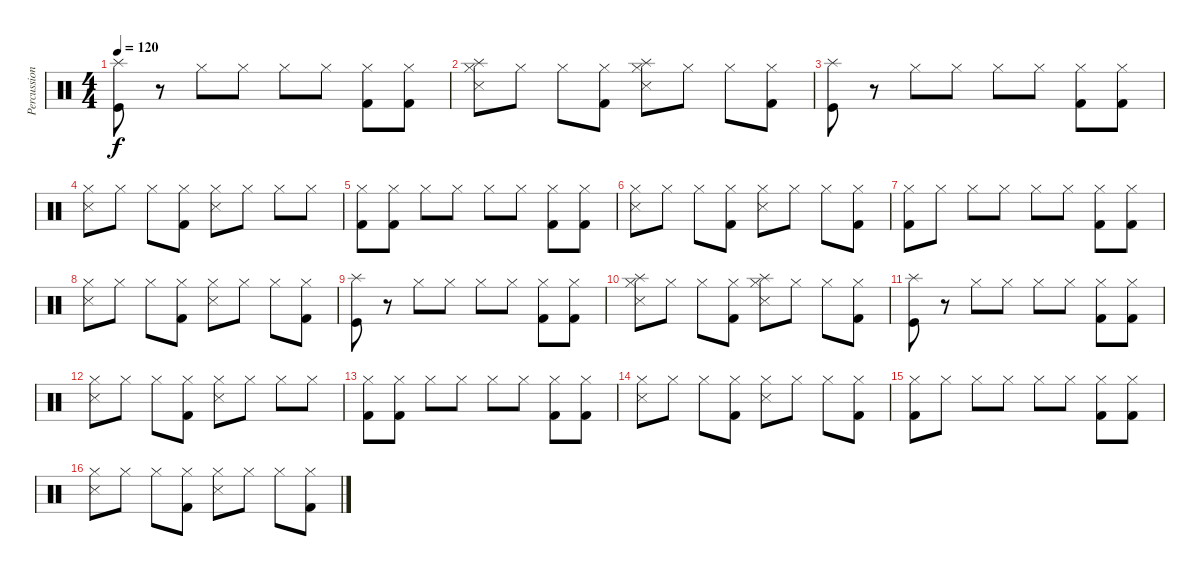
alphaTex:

\track ("Percussion" "Percussion") {instrument percussion}
\staff {score}
\articulation defaults
\ts (4 4)
\tempo 120
\clef neutral
\ks c
("Splash (hit)" "Kick (hit)").8{dy f} r.8 "Hi-Hat (closed)".8 "Hi-Hat (closed)".8 "Hi-Hat (closed)".8 "Hi-Hat (closed)".8 ("Kick (hit) 2" "Hi-Hat (closed)").8 ("Kick (hit) 2" "Hi-Hat (closed)").8 |
("Splash (hit)" "Snare (side stick) 3" "Hi-Hat (closed)").8 "Hi-Hat (closed)".8 "Hi-Hat (closed)".8 ("Kick (hit) 2" "Hi-Hat (closed)").8 ("Splash (hit)" "Snare (side stick) 3" "Hi-Hat (closed)").8 "Hi-Hat (closed)".8 "Hi-Hat (closed)".8 ("Kick (hit) 2" "Hi-Hat (closed)").8 |
("Splash (hit)" "Kick (hit)").8 r.8 "Hi-Hat (closed)".8 "Hi-Hat (closed)".8 "Hi-Hat (closed)".8 "Hi-Hat (closed)".8 ("Kick (hit) 2" "Hi-Hat (closed)").8 ("Kick (hit) 2" "Hi-Hat (closed)").8 |
("Snare (side stick) 3" "Hi-Hat (closed)").8 "Hi-Hat (closed)".8 "Hi-Hat (closed)".8 ("Kick (hit) 2" "Hi-Hat (closed)").8 ("Snare (side stick) 3" "Hi-Hat (closed)").8 "Hi-Hat (closed)".8 "Hi-Hat (closed)".8 "Hi-Hat (closed)".8 |
("Kick (hit) 2" "Hi-Hat (closed)").8 ("Kick (hit) 2" "Hi-Hat (closed)").8 "Hi-Hat (closed)".8 "Hi-Hat (closed)".8 "Hi-Hat (closed)".8 "Hi-Hat (closed)".8 ("Kick (hit) 2" "Hi-Hat (closed)").8 ("Kick (hit) 2" "Hi-Hat (closed)").8 |
("Snare (side stick) 3" "Hi-Hat (closed)").8 "Hi-Hat (closed)".8 "Hi-Hat (closed)".8 ("Kick (hit) 2" "Hi-Hat (closed)").8 ("Snare (side stick) 3" "Hi-Hat (closed)").8 "Hi-Hat (closed)".8 "Hi-Hat (closed)".8 ("Kick (hit) 2" "Hi-Hat (closed)").8 |
("Kick (hit) 2" "Hi-Hat (closed)").8 "Hi-Hat (closed)".8 "Hi-Hat (closed)".8 "Hi-Hat (closed)".8 "Hi-Hat (closed)".8 "Hi-Hat (closed)".8 ("Kick (hit) 2" "Hi-Hat (closed)").8 ("Kick (hit) 2" "Hi-Hat (closed)").8 |
("Snare (side stick) 3" "Hi-Hat (closed)").8 "Hi-Hat (closed)".8 "Hi-Hat (closed)".8 ("Kick (hit) 2" "Hi-Hat (closed)").8 ("Snare (side stick) 3" "Hi-Hat (closed)").8 "Hi-Hat (closed)".8 "Hi-Hat (closed)".8 ("Kick (hit) 2" "Hi-Hat (closed)").8 |
("Splash (hit)" "Kick (hit)").8 r.8 "Hi-Hat (closed)".8 "Hi-Hat (closed)".8 "Hi-Hat (closed)".8 "Hi-Hat (closed)".8 ("Kick (hit) 2" "Hi-Hat (closed)").8 ("Kick (hit) 2" "Hi-Hat (closed)").8 |
("Splash (hit)" "Snare (side stick) 3" "Hi-Hat (closed)").8 "Hi-Hat (closed)".8 "Hi-Hat (closed)".8 ("Kick (hit) 2" "Hi-Hat (closed)").8 ("Splash (hit)" "Snare (side stick) 3" "Hi-Hat (closed)").8 "Hi-Hat (closed)".8 "Hi-Hat (closed)".8 ("Kick (hit) 2" "Hi-Hat (closed)").8 |
("Splash (hit)" "Kick (hit)").8 r.8 "Hi-Hat (closed)".8 "Hi-Hat (closed)".8 "Hi-Hat (closed)".8 "Hi-Hat (closed)".8 ("Kick (hit) 2" "Hi-Hat (closed)").8 ("Kick (hit) 2" "Hi-Hat (closed)").8 |
("Snare (side stick) 3" "Hi-Hat (closed)").8 "Hi-Hat (closed)".8 "Hi-Hat (closed)".8 ("Kick (hit) 2" "Hi-Hat (closed)").8 ("Snare (side stick) 3" "Hi-Hat (closed)").8 "Hi-Hat (closed)".8 "Hi-Hat (closed)".8 "Hi-Hat (closed)".8 |
("Kick (hit) 2" "Hi-Hat (closed)").8 ("Kick (hit) 2" "Hi-Hat (closed)").8 "Hi-Hat (closed)".8 "Hi-Hat (closed)".8 "Hi-Hat (closed)".8 "Hi-Hat (closed)".8 ("Kick (hit) 2" "Hi-Hat (closed)").8 ("Kick (hit) 2" "Hi-Hat (closed)").8 |
("Snare (side stick) 3" "Hi-Hat (closed)").8 "Hi-Hat (closed)".8 "Hi-Hat (closed)".8 ("Kick (hit) 2" "Hi-Hat (closed)").8 ("Snare (side stick) 3" "Hi-Hat (closed)").8 "Hi-Hat (closed)".8 "Hi-Hat (closed)".8 ("Kick (hit) 2" "Hi-Hat (closed)").8 |
("Kick (hit) 2" "Hi-Hat (closed)").8 "Hi-Hat (closed)".8 "Hi-Hat (closed)".8 "Hi-Hat (closed)".8 "Hi-Hat (closed)".8 "Hi-Hat (closed)".8 ("Kick (hit) 2" "Hi-Hat (closed)").8 ("Kick (hit) 2" "Hi-Hat (closed)").8 |
("Snare (side stick) 3" "Hi-Hat (closed)").8 "Hi-Hat (closed)".8 "Hi-Hat (closed)".8 ("Kick (hit) 2" "Hi-Hat (closed)").8 ("Snare (side stick) 3" "Hi-Hat (closed)").8 "Hi-Hat (closed)".8 "Hi-Hat (closed)".8 ("Kick (hit) 2" "Hi-Hat (closed)").8
